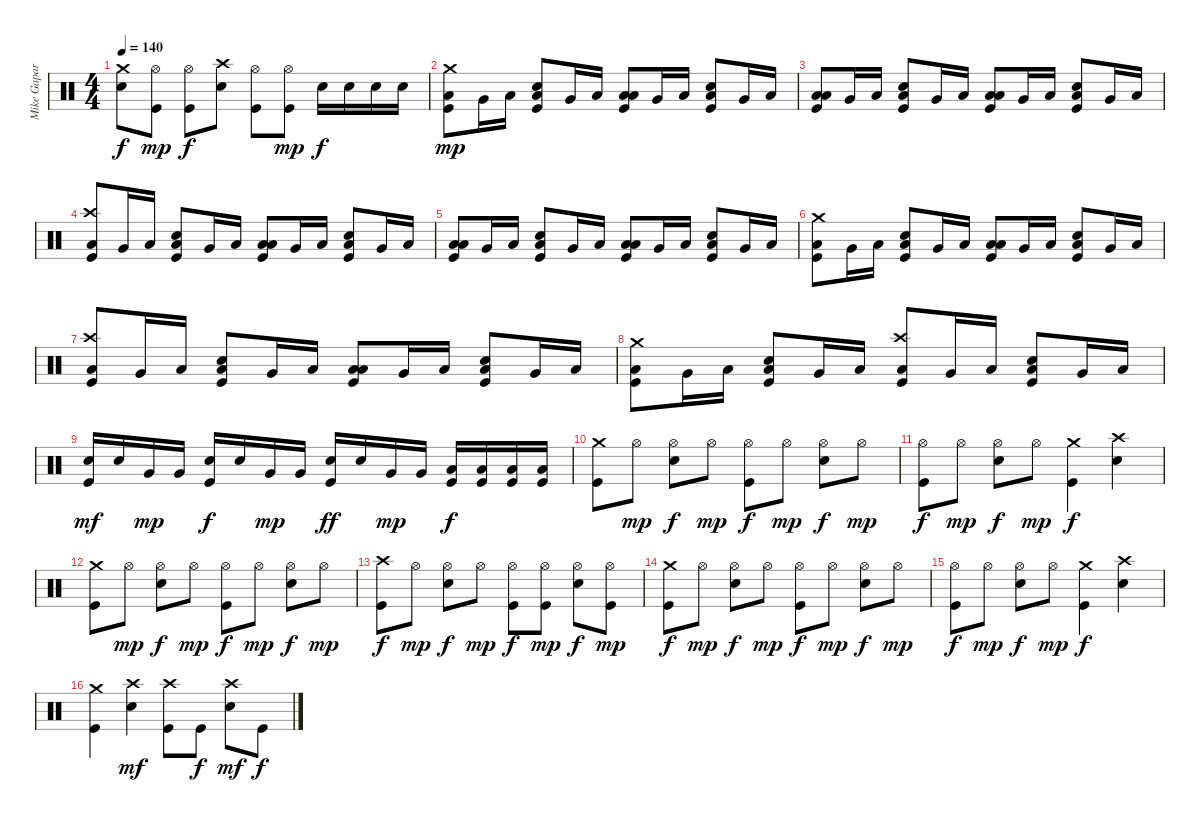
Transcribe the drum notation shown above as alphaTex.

\track ("Mike Gapar" "Mike Gapar") {instrument percussion}
\staff {score}
\articulation defaults
\ts (4 4)
\tempo 140
\clef neutral
\ks c
("Crash medium (hit)" "Electric Snare (hit)").8{dy f} ("Hi-Hat (open)" "Kick (hit)").8{dy mp} ("Hi-Hat (open)" "Kick (hit)").8{dy f} ("Crash high (hit)" "Electric Snare (hit)").8 ("Hi-Hat (open)" "Kick (hit)").8 ("Hi-Hat (open)" "Kick (hit)").8{dy mp} "Electric Snare (hit)".16{dy f} "Electric Snare (hit)".16 "Electric Snare (hit)".16 "Electric Snare (hit)".16 |
("Crash medium (hit)" "Low Floor Tom (hit)" "Kick (hit)").8{dy mp} "Very Low Tom (hit)".16 "Low Floor Tom (hit)".16 ("Electric Snare (hit)" "Low Floor Tom (hit)" "Kick (hit)").8 "Very Low Tom (hit)".16 "Low Floor Tom (hit)".16 ("Low Tom (hit)" "Low Floor Tom (hit)" "Kick (hit)").8 "Very Low Tom (hit)".16 "Low Floor Tom (hit)".16 ("Electric Snare (hit)" "Low Floor Tom (hit)" "Kick (hit)").8 "Very Low Tom (hit)".16 "Low Floor Tom (hit)".16 |
("Low Tom (hit)" "Low Floor Tom (hit)" "Kick (hit)").8 "Very Low Tom (hit)".16 "Low Floor Tom (hit)".16 ("Electric Snare (hit)" "Low Floor Tom (hit)" "Kick (hit)").8 "Very Low Tom (hit)".16 "Low Floor Tom (hit)".16 ("Low Tom (hit)" "Low Floor Tom (hit)" "Kick (hit)").8 "Very Low Tom (hit)".16 "Low Floor Tom (hit)".16 ("Electric Snare (hit)" "Low Floor Tom (hit)" "Kick (hit)").8 "Very Low Tom (hit)".16 "Low Floor Tom (hit)".16 |
("Crash high (hit)" "Low Floor Tom (hit)" "Kick (hit)").8 "Very Low Tom (hit)".16 "Low Floor Tom (hit)".16 ("Electric Snare (hit)" "Low Floor Tom (hit)" "Kick (hit)").8 "Very Low Tom (hit)".16 "Low Floor Tom (hit)".16 ("Low Tom (hit)" "Low Floor Tom (hit)" "Kick (hit)").8 "Very Low Tom (hit)".16 "Low Floor Tom (hit)".16 ("Electric Snare (hit)" "Low Floor Tom (hit)" "Kick (hit)").8 "Very Low Tom (hit)".16 "Low Floor Tom (hit)".16 |
("Low Tom (hit)" "Low Floor Tom (hit)" "Kick (hit)").8 "Very Low Tom (hit)".16 "Low Floor Tom (hit)".16 ("Electric Snare (hit)" "Low Floor Tom (hit)" "Kick (hit)").8 "Very Low Tom (hit)".16 "Low Floor Tom (hit)".16 ("Low Tom (hit)" "Low Floor Tom (hit)" "Kick (hit)").8 "Very Low Tom (hit)".16 "Low Floor Tom (hit)".16 ("Electric Snare (hit)" "Low Floor Tom (hit)" "Kick (hit)").8 "Very Low Tom (hit)".16 "Low Floor Tom (hit)".16 |
("Crash medium (hit)" "Low Floor Tom (hit)" "Kick (hit)").8 "Very Low Tom (hit)".16 "Low Floor Tom (hit)".16 ("Electric Snare (hit)" "Low Floor Tom (hit)" "Kick (hit)").8 "Very Low Tom (hit)".16 "Low Floor Tom (hit)".16 ("Low Tom (hit)" "Low Floor Tom (hit)" "Kick (hit)").8 "Very Low Tom (hit)".16 "Low Floor Tom (hit)".16 ("Electric Snare (hit)" "Low Floor Tom (hit)" "Kick (hit)").8 "Very Low Tom (hit)".16 "Low Floor Tom (hit)".16 |
("Crash high (hit)" "Low Floor Tom (hit)" "Kick (hit)").8 "Very Low Tom (hit)".16 "Low Floor Tom (hit)".16 ("Electric Snare (hit)" "Low Floor Tom (hit)" "Kick (hit)").8 "Very Low Tom (hit)".16 "Low Floor Tom (hit)".16 ("Low Tom (hit)" "Low Floor Tom (hit)" "Kick (hit)").8 "Very Low Tom (hit)".16 "Low Floor Tom (hit)".16 ("Electric Snare (hit)" "Low Floor Tom (hit)" "Kick (hit)").8 "Very Low Tom (hit)".16 "Low Floor Tom (hit)".16 |
("Crash medium (hit)" "Low Floor Tom (hit)" "Kick (hit)").8 "Very Low Tom (hit)".16 "Low Floor Tom (hit)".16 ("Electric Snare (hit)" "Low Floor Tom (hit)" "Kick (hit)").8 "Very Low Tom (hit)".16 "Low Floor Tom (hit)".16 ("Crash high (hit)" "Low Floor Tom (hit)" "Kick (hit)").8 "Very Low Tom (hit)".16 "Low Floor Tom (hit)".16 ("Electric Snare (hit)" "Low Floor Tom (hit)" "Kick (hit)").8 "Very Low Tom (hit)".16 "Low Floor Tom (hit)".16 |
("Electric Snare (hit)" "Kick (hit)").16{dy mf} "Electric Snare (hit)".16 "Very Low Tom (hit)".16{dy mp} "Very Low Tom (hit)".16 ("Electric Snare (hit)" "Kick (hit)").16{dy f} "Electric Snare (hit)".16 "Very Low Tom (hit)".16{dy mp} "Very Low Tom (hit)".16 ("Electric Snare (hit)" "Kick (hit)").16{dy ff} "Electric Snare (hit)".16 "Very Low Tom (hit)".16{dy mp} "Very Low Tom (hit)".16 ("Low Floor Tom (hit)" "Kick (hit)").16{dy f} ("Low Floor Tom (hit)" "Kick (hit)").16 ("Low Floor Tom (hit)" "Kick (hit)").16 ("Low Floor Tom (hit)" "Kick (hit)").16 |
("Crash medium (hit)" "Kick (hit)").8 "Hi-Hat (open)".8{dy mp} ("Hi-Hat (open)" "Electric Snare (hit)").8{dy f} "Hi-Hat (open)".8{dy mp} ("Hi-Hat (open)" "Kick (hit)").8{dy f} "Hi-Hat (open)".8{dy mp} ("Hi-Hat (open)" "Electric Snare (hit)").8{dy f} "Hi-Hat (open)".8{dy mp} |
("Hi-Hat (open)" "Kick (hit)").8{dy f} "Hi-Hat (open)".8{dy mp} ("Hi-Hat (open)" "Electric Snare (hit)").8{dy f} "Hi-Hat (open)".8{dy mp} ("Crash medium (hit)" "Kick (hit)").4{dy f} ("Crash high (hit)" "Electric Snare (hit)").4 |
("Crash medium (hit)" "Kick (hit)").8 "Hi-Hat (open)".8{dy mp} ("Hi-Hat (open)" "Electric Snare (hit)").8{dy f} "Hi-Hat (open)".8{dy mp} ("Hi-Hat (open)" "Kick (hit)").8{dy f} "Hi-Hat (open)".8{dy mp} ("Hi-Hat (open)" "Electric Snare (hit)").8{dy f} "Hi-Hat (open)".8{dy mp} |
("Crash high (hit)" "Kick (hit)").8{dy f} "Hi-Hat (open)".8{dy mp} ("Hi-Hat (open)" "Electric Snare (hit)").8{dy f} "Hi-Hat (open)".8{dy mp} ("Hi-Hat (open)" "Kick (hit)").8{dy f} ("Hi-Hat (open)" "Kick (hit)").8{dy mp} ("Hi-Hat (open)" "Electric Snare (hit)").8{dy f} ("Hi-Hat (open)" "Kick (hit)").8{dy mp} |
("Crash medium (hit)" "Kick (hit)").8{dy f} "Hi-Hat (open)".8{dy mp} ("Hi-Hat (open)" "Electric Snare (hit)").8{dy f} "Hi-Hat (open)".8{dy mp} ("Hi-Hat (open)" "Kick (hit)").8{dy f} "Hi-Hat (open)".8{dy mp} ("Hi-Hat (open)" "Electric Snare (hit)").8{dy f} "Hi-Hat (open)".8{dy mp} |
("Hi-Hat (open)" "Kick (hit)").8{dy f} "Hi-Hat (open)".8{dy mp} ("Hi-Hat (open)" "Electric Snare (hit)").8{dy f} "Hi-Hat (open)".8{dy mp} ("Crash medium (hit)" "Kick (hit)").4{dy f} ("Crash high (hit)" "Electric Snare (hit)").4 |
("Crash medium (hit)" "Kick (hit)").4 ("Crash high (hit)" "Electric Snare (hit)").4{dy mf} ("Crash high (hit)" "Kick (hit)").8 "Kick (hit)".8{dy f} ("Crash high (hit)" "Electric Snare (hit)").8{dy mf} "Kick (hit)".8{dy f}
